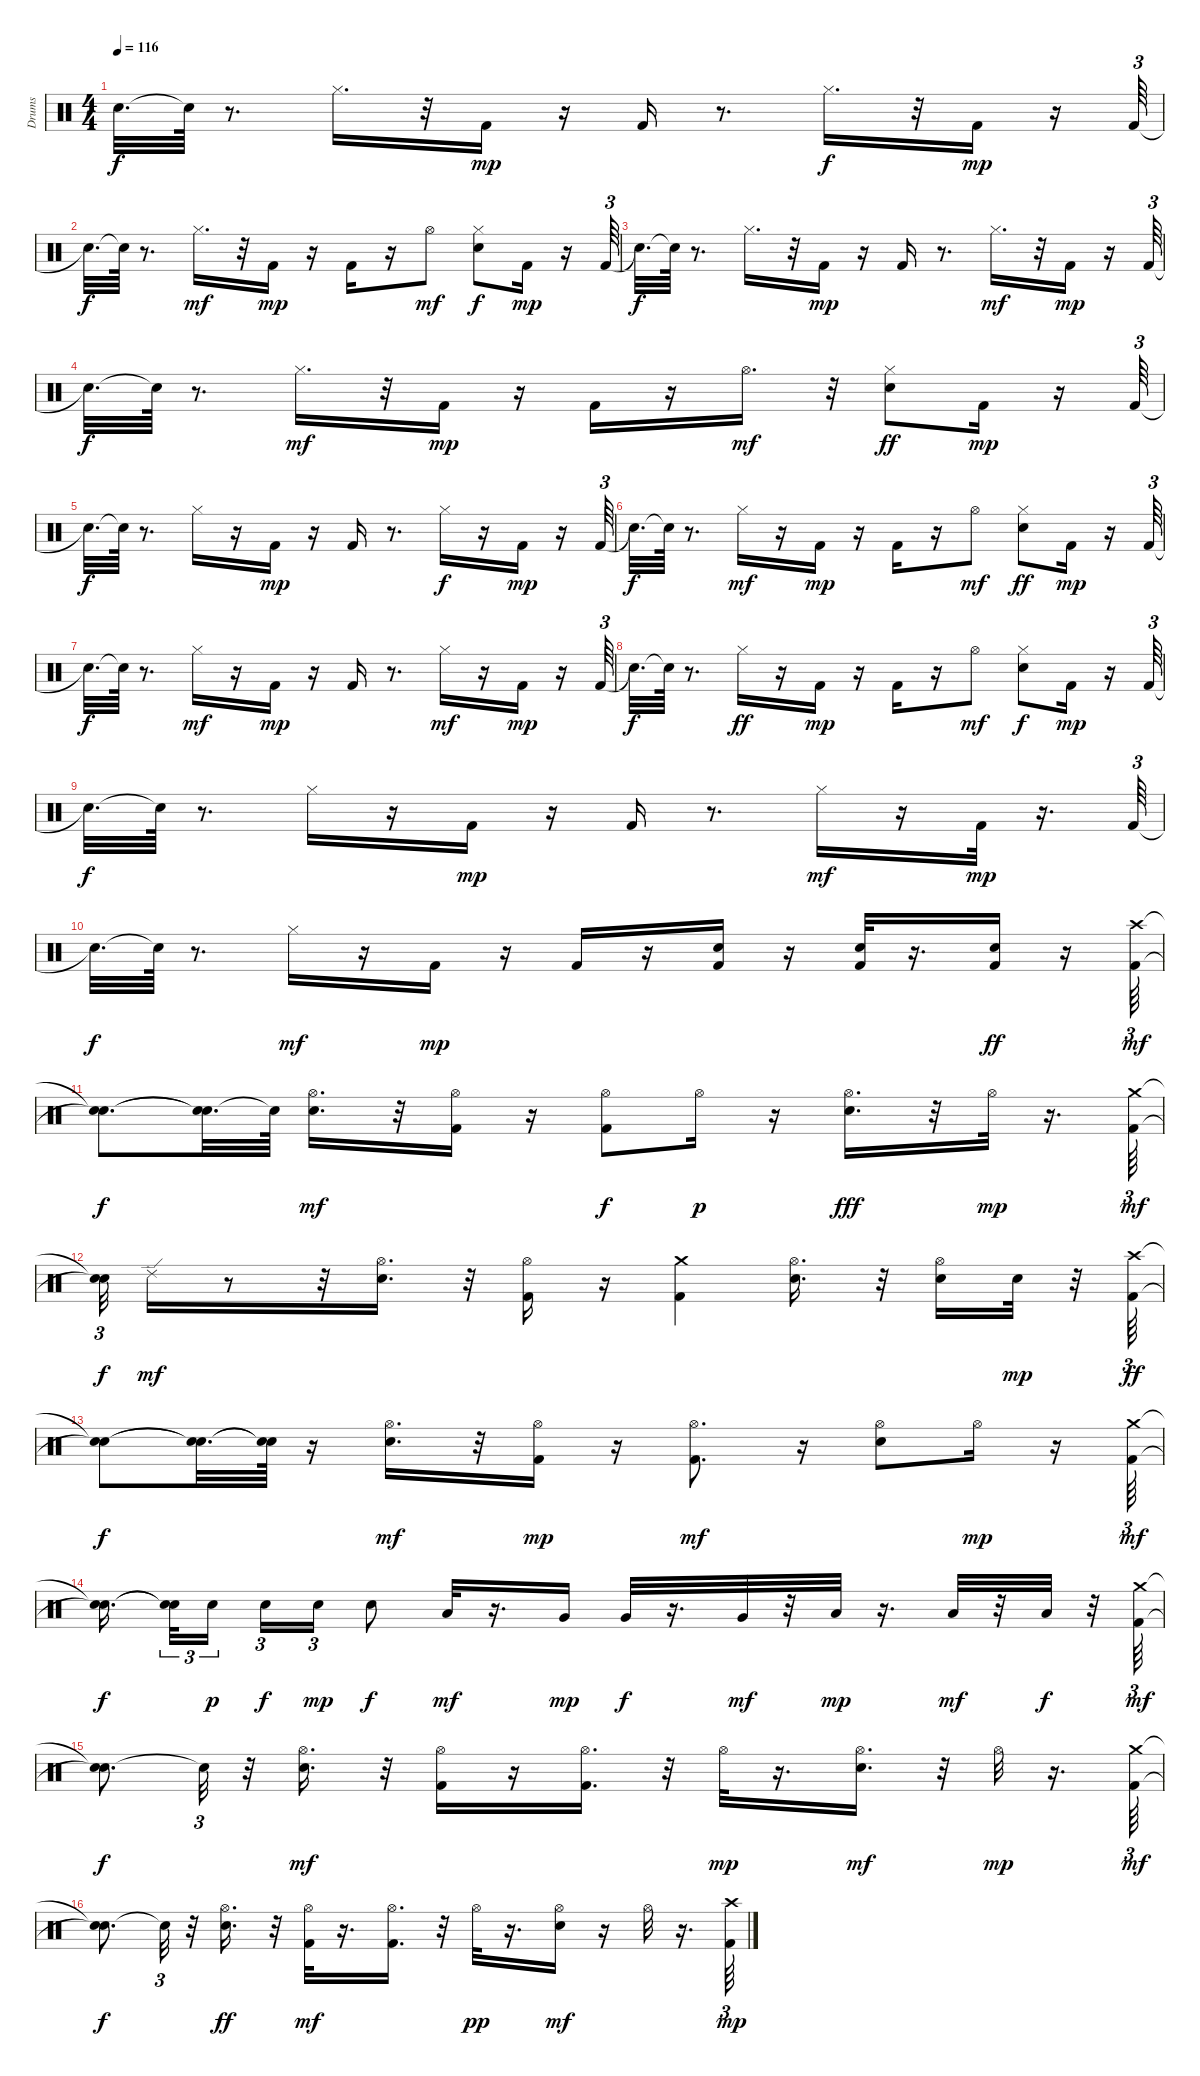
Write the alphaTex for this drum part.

\track ("Drums" "Drums") {instrument percussion}
\staff {score}
\articulation defaults
\ts (4 4)
\tempo 116
\clef neutral
\ks c "Snare (hit)"{t}.32{d dy f} "Snare (hit)"{t}.64
r.8{d} "Hi-Hat (closed)".16{d} r.32 "Kick (hit) 2".16{dy mp} r.16 "Kick (hit) 2".16 r.8{d} "Hi-Hat (closed)".16{d dy f} r.32 "Kick (hit) 2".16{dy mp} r.16 "Kick (hit) 2".64{tu (3 2)} |
"Snare (hit)"{t}.32{d dy f} "Snare (hit)"{t}.64 r.8{d} "Hi-Hat (closed)".16{d dy mf} r.32 "Kick (hit) 2".16{dy mp} r.16 "Kick (hit) 2".16 r.16 "Hi-Hat (open)".8{dy mf} ("Hi-Hat (closed)" "Electric Snare (hit)").8{dy f} "Kick (hit) 2".16{dy mp} r.16 "Kick (hit) 2".64{tu (3 2)} |
"Snare (hit)"{t}.32{d dy f} "Snare (hit)"{t}.64 r.8{d} "Hi-Hat (closed)".16{d} r.32 "Kick (hit) 2".16{dy mp} r.16 "Kick (hit) 2".16 r.8{d} "Hi-Hat (closed)".16{d dy mf} r.32 "Kick (hit) 2".16{dy mp} r.16 "Kick (hit) 2".64{tu (3 2)} |
"Snare (hit)"{t}.32{d dy f} "Snare (hit)"{t}.64 r.8{d} "Hi-Hat (closed)".16{d dy mf} r.32 "Kick (hit) 2".16{dy mp} r.16 "Kick (hit) 2".16 r.16 "Hi-Hat (open)".16{d dy mf} r.32 ("Hi-Hat (closed)" "Electric Snare (hit)").8{dy ff} "Kick (hit) 2".16{dy mp} r.16 "Kick (hit) 2".64{tu (3 2)} |
"Snare (hit)"{t}.32{d dy f} "Snare (hit)"{t}.64 r.8{d} "Hi-Hat (closed)".16 r.16 "Kick (hit) 2".16{dy mp} r.16 "Kick (hit) 2".16 r.8{d} "Hi-Hat (closed)".16{dy f} r.16 "Kick (hit) 2".16{dy mp} r.16 "Kick (hit) 2".64{tu (3 2)} |
"Snare (hit)"{t}.32{d dy f} "Snare (hit)"{t}.64 r.8{d} "Hi-Hat (closed)".16{dy mf} r.16 "Kick (hit) 2".16{dy mp} r.16 "Kick (hit) 2".16 r.16 "Hi-Hat (open)".8{dy mf} ("Hi-Hat (closed)" "Electric Snare (hit)").8{dy ff} "Kick (hit) 2".16{dy mp} r.16 "Kick (hit) 2".64{tu (3 2)} |
"Snare (hit)"{t}.32{d dy f} "Snare (hit)"{t}.64 r.8{d} "Hi-Hat (closed)".16{dy mf} r.16 "Kick (hit) 2".16{dy mp} r.16 "Kick (hit) 2".16 r.8{d} "Hi-Hat (closed)".16{dy mf} r.16 "Kick (hit) 2".16{dy mp} r.16 "Kick (hit) 2".64{tu (3 2)} |
"Snare (hit)"{t}.32{d dy f} "Snare (hit)"{t}.64 r.8{d} "Hi-Hat (closed)".16{dy ff} r.16 "Kick (hit) 2".16{dy mp} r.16 "Kick (hit) 2".16 r.16 "Hi-Hat (open)".8{dy mf} ("Hi-Hat (closed)" "Electric Snare (hit)").8{dy f} "Kick (hit) 2".16{dy mp} r.16 "Kick (hit) 2".64{tu (3 2)} |
"Snare (hit)"{t}.32{d dy f} "Snare (hit)"{t}.64 r.8{d} "Hi-Hat (closed)".16 r.16 "Kick (hit) 2".16{dy mp} r.16 "Kick (hit) 2".16 r.8{d} "Hi-Hat (closed)".16{dy mf} r.16 "Kick (hit) 2".32{dy mp} r.16{d} "Kick (hit) 2".64{tu (3 2)} |
"Snare (hit)"{t}.32{d dy f} "Snare (hit)"{t}.64 r.8{d} "Hi-Hat (closed)".16{dy mf} r.16 "Kick (hit) 2".16{dy mp} r.16 "Kick (hit) 2".16 r.16 ("Electric Snare (hit)" "Kick (hit) 2").16 r.16 ("Electric Snare (hit)" "Kick (hit) 2").32 r.16{d} ("Electric Snare (hit)" "Kick (hit) 2").16{dy ff} r.16 ("Kick (hit) 2" "Crash high (hit)").64{tu (3 2) dy mf} |
("Snare (hit)"{t} "Snare (hit)"{t}).8{d dy f} ("Snare (hit)"{t} "Snare (hit)"{t}).32{d} "Snare (hit)"{t}.64 ("Electric Snare (hit)" "Hi-Hat (open)").16{d dy mf} r.32 ("Hi-Hat (open)" "Kick (hit) 2").16 r.16 ("Kick (hit) 2" "Hi-Hat (open)").8{dy f} "Hi-Hat (open)".16{dy p} r.16 ("Electric Snare (hit)" "Hi-Hat (open)").16{d dy fff} r.32 "Hi-Hat (open)".32{dy mp} r.16{d} ("Kick (hit) 2" "Crash medium (hit)").64{tu (3 2) dy mf} |
("Snare (hit)"{t} "Snare (hit)"{t}).32{tu (3 2) dy f} "Ride (edge) 2".16{dy mf} r.8 r.32 ("Electric Snare (hit)" "Hi-Hat (open)").16{d} r.32 ("Kick (hit) 2" "Hi-Hat (open)").16 r.16 ("Crash medium (hit)" "Kick (hit) 2").4 ("Electric Snare (hit)" "Hi-Hat (open)").16{d} r.32 ("Electric Snare (hit)" "Hi-Hat (open)").16 "Electric Snare (hit)".32{dy mp} r.32 ("Crash high (hit)" "Kick (hit) 2").64{tu (3 2) dy ff} |
("Snare (hit)"{t} "Snare (hit)"{t}).8{dy f} ("Snare (hit)"{t} "Snare (hit)"{t}).32{d} ("Snare (hit)"{t} "Snare (hit)"{t}).64 r.16 ("Electric Snare (hit)" "Hi-Hat (open)").16{d dy mf} r.32 ("Kick (hit) 2" "Hi-Hat (open)").16{dy mp} r.16 ("Kick (hit) 2" "Hi-Hat (open)").8{d dy mf} r.16 ("Electric Snare (hit)" "Hi-Hat (open)").8 "Hi-Hat (open)".16{dy mp} r.16 ("Kick (hit) 2" "Crash medium (hit)").64{tu (3 2) dy mf} |
("Snare (hit)"{t} "Snare (hit)"{t}).16{d dy f beam splitsecondary} ("Snare (hit)"{t} "Snare (hit)"{t}).32{tu (3 2)} "Electric Snare (hit)".16{tu (3 2) dy p beam splitsecondary} "Electric Snare (hit)".16{tu (3 2) dy f} "Electric Snare (hit)".16{tu (3 2) dy mp} "Electric Snare (hit)".8{dy f} "Low Tom (hit)".32{dy mf} r.16{d} "Very Low Tom (hit)".16{dy mp} "Very Low Tom (hit)".32{dy f} r.16{d} "Very Low Tom (hit)".32{dy mf} r.32 "Low Floor Tom (hit)".32{dy mp} r.16{d} "Low Floor Tom (hit)".32{dy mf} r.32 "Low Floor Tom (hit)".32{dy f} r.32 ("Crash medium (hit)" "Kick (hit) 2").64{tu (3 2) dy mf} |
("Snare (hit)"{t} "Snare (hit)"{t}).8{d dy f} "Snare (hit)"{t}.32{tu (3 2)} r.32 ("Electric Snare (hit)" "Hi-Hat (open)").16{d dy mf} r.32 ("Hi-Hat (open)" "Kick (hit) 2").16 r.16 ("Hi-Hat (open)" "Kick (hit) 2").16{d} r.32 "Hi-Hat (open)".32{dy mp} r.16{d} ("Hi-Hat (open)" "Electric Snare (hit)").16{d dy mf} r.32 "Hi-Hat (open)".32{dy mp} r.16{d} ("Kick (hit) 2" "Crash medium (hit)").64{tu (3 2) dy mf} |
("Snare (hit)"{t} "Snare (hit)"{t}).8{d dy f} "Snare (hit)"{t}.32{tu (3 2)} r.32 ("Hi-Hat (open)" "Electric Snare (hit)").16{d dy ff} r.32 ("Hi-Hat (open)" "Kick (hit) 2").32{dy mf} r.16{d} ("Hi-Hat (open)" "Kick (hit) 2").16{d} r.32 "Hi-Hat (open)".32{dy pp} r.16{d} ("Hi-Hat (open)" "Electric Snare (hit)").16{dy mf} r.16 "Hi-Hat (open)".32 r.16{d} ("Kick (hit) 2" "Crash high (hit)").64{tu (3 2) dy mp}
